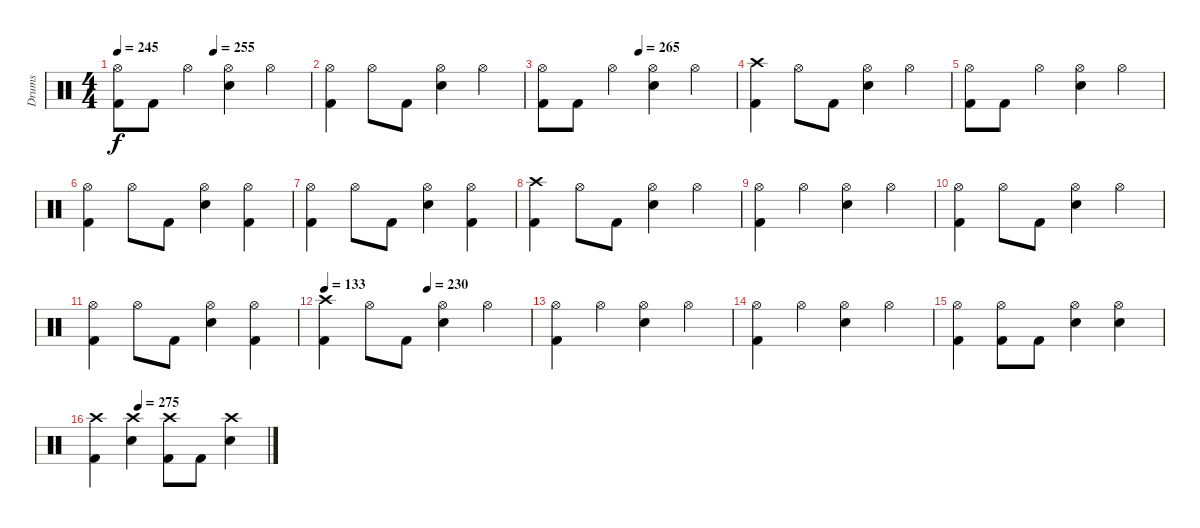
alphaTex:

\track ("Drums" "Drums") {instrument percussion}
\staff {score}
\articulation defaults
\ts (4 4)
\tempo 245
\tempo (255 0.5)
\clef neutral
\ks c
("Kick (hit) 2" "Hi-Hat (open)").8{dy f} "Kick (hit) 2".8 "Hi-Hat (open)".4 ("Electric Snare (hit)" "Hi-Hat (open)").4 "Hi-Hat (open)".4 |
("Kick (hit) 2" "Hi-Hat (open)").4 "Hi-Hat (open)".8 "Kick (hit) 2".8 ("Electric Snare (hit)" "Hi-Hat (open)").4 "Hi-Hat (open)".4 |
\tempo (265 0.5)
("Kick (hit) 2" "Hi-Hat (open)").8 "Kick (hit) 2".8 "Hi-Hat (open)".4 ("Electric Snare (hit)" "Hi-Hat (open)").4 "Hi-Hat (open)".4 |
("Kick (hit) 2" "Crash high (hit)").4 "Hi-Hat (open)".8 "Kick (hit) 2".8 ("Electric Snare (hit)" "Hi-Hat (open)").4 "Hi-Hat (open)".4 |
("Kick (hit) 2" "Hi-Hat (open)").8 "Kick (hit) 2".8 "Hi-Hat (open)".4 ("Electric Snare (hit)" "Hi-Hat (open)").4 "Hi-Hat (open)".4 |
("Kick (hit) 2" "Hi-Hat (open)").4 "Hi-Hat (open)".8 "Kick (hit) 2".8 ("Electric Snare (hit)" "Hi-Hat (open)").4 ("Kick (hit) 2" "Hi-Hat (open)").4 |
("Kick (hit) 2" "Hi-Hat (open)").4 "Hi-Hat (open)".8 "Kick (hit) 2".8 ("Electric Snare (hit)" "Hi-Hat (open)").4 ("Kick (hit) 2" "Hi-Hat (open)").4 |
("Kick (hit) 2" "Crash high (hit)").4 "Hi-Hat (open)".8 "Kick (hit) 2".8 ("Electric Snare (hit)" "Hi-Hat (open)").4 "Hi-Hat (open)".4 |
("Kick (hit) 2" "Hi-Hat (open)").4 "Hi-Hat (open)".4 ("Electric Snare (hit)" "Hi-Hat (open)").4 "Hi-Hat (open)".4 |
("Kick (hit) 2" "Hi-Hat (open)").4 "Hi-Hat (open)".8 "Kick (hit) 2".8 ("Electric Snare (hit)" "Hi-Hat (open)").4 "Hi-Hat (open)".4 |
("Kick (hit) 2" "Hi-Hat (open)").4 "Hi-Hat (open)".8 "Kick (hit) 2".8 ("Electric Snare (hit)" "Hi-Hat (open)").4 ("Kick (hit) 2" "Hi-Hat (open)").4 |
\tempo 133
\tempo (230 0.5)
("Kick (hit) 2" "Crash high (hit)").4 "Hi-Hat (open)".8 "Kick (hit) 2".8 ("Electric Snare (hit)" "Hi-Hat (open)").4 "Hi-Hat (open)".4 |
("Kick (hit) 2" "Hi-Hat (open)").4 "Hi-Hat (open)".4 ("Electric Snare (hit)" "Hi-Hat (open)").4 "Hi-Hat (open)".4 |
("Kick (hit) 2" "Hi-Hat (open)").4 "Hi-Hat (open)".4 ("Electric Snare (hit)" "Hi-Hat (open)").4 "Hi-Hat (open)".4 |
("Kick (hit) 2" "Hi-Hat (open)").4 ("Kick (hit) 2" "Hi-Hat (open)").8 "Kick (hit) 2".8 ("Electric Snare (hit)" "Hi-Hat (open)").4 ("Electric Snare (hit)" "Hi-Hat (open)").4 |
\tempo (275 0.25)
("Kick (hit) 2" "Crash high (hit)").4 ("Electric Snare (hit)" "Crash high (hit)").4 ("Kick (hit) 2" "Crash high (hit)").8 "Kick (hit) 2".8 ("Electric Snare (hit)" "Crash high (hit)").4
